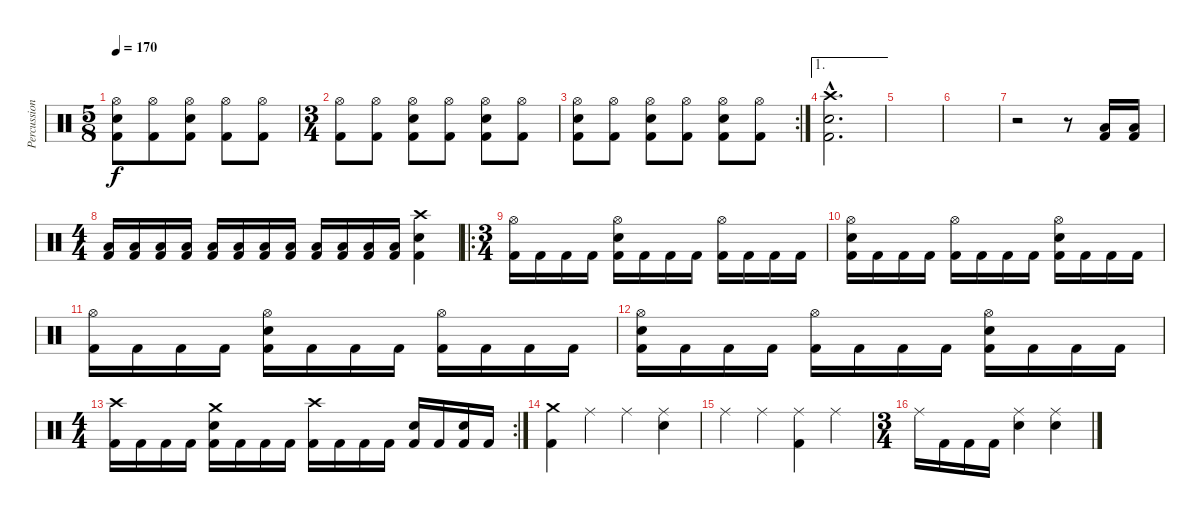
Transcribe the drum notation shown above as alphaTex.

\track ("Percussion" "Percussion") {instrument percussion}
\staff {score}
\articulation defaults
\ts (5 8)
\tempo 170
\clef neutral
\ks c
("Kick (hit) 2" "Snare (hit) 2" "Hi-Hat (open)").8{dy f} ("Kick (hit) 2" "Hi-Hat (open)").8 ("Kick (hit) 2" "Snare (hit) 2" "Hi-Hat (open)").8 ("Kick (hit) 2" "Hi-Hat (open)").8 ("Kick (hit) 2" "Hi-Hat (open)").8 |
\ts (3 4)
("Kick (hit) 2" "Hi-Hat (open)").8 ("Kick (hit) 2" "Hi-Hat (open)").8 ("Kick (hit) 2" "Snare (hit) 2" "Hi-Hat (open)").8 ("Kick (hit) 2" "Hi-Hat (open)").8 ("Kick (hit) 2" "Snare (hit) 2" "Hi-Hat (open)").8 ("Kick (hit) 2" "Hi-Hat (open)").8 |
\rc 2
("Kick (hit) 2" "Snare (hit) 2" "Hi-Hat (open)").8 ("Kick (hit) 2" "Hi-Hat (open)").8 ("Kick (hit) 2" "Snare (hit) 2" "Hi-Hat (open)").8 ("Kick (hit) 2" "Hi-Hat (open)").8 ("Kick (hit) 2" "Snare (hit) 2" "Hi-Hat (open)").8 ("Kick (hit) 2" "Hi-Hat (open)").8 |
\ae 1
("Kick (hit) 2"{hac} "Snare (hit) 2"{hac} "Crash high (hit)"{hac}).2{d} |
|
|
r.2 r.8 ("Kick (hit) 2" "Low Floor Tom (hit)").16 ("Kick (hit) 2" "Low Floor Tom (hit)").16 |
\ts (4 4)
("Kick (hit) 2" "Low Tom (hit)").16 ("Kick (hit) 2" "Low Tom (hit)").16 ("Kick (hit) 2" "Low Floor Tom (hit)").16 ("Kick (hit) 2" "Low Floor Tom (hit)").16 ("Kick (hit) 2" "Low Tom (hit)").16 ("Kick (hit) 2" "Low Tom (hit)").16 ("Kick (hit) 2" "Low Floor Tom (hit)").16 ("Kick (hit) 2" "Low Floor Tom (hit)").16 ("Kick (hit) 2" "Low Tom (hit)").16 ("Kick (hit) 2" "Low Tom (hit)").16 ("Kick (hit) 2" "Low Floor Tom (hit)").16 ("Kick (hit) 2" "Low Floor Tom (hit)").16 ("Kick (hit) 2" "Snare (hit) 2" "Crash high (hit)").4 |
\ro
\ts (3 4)
("Kick (hit) 2" "Hi-Hat (open)").16 "Kick (hit) 2".16 "Kick (hit) 2".16 "Kick (hit) 2".16 ("Kick (hit) 2" "Snare (hit) 2" "Hi-Hat (open)").16 "Kick (hit) 2".16 "Kick (hit) 2".16 "Kick (hit) 2".16 ("Kick (hit) 2" "Hi-Hat (open)").16 "Kick (hit) 2".16 "Kick (hit) 2".16 "Kick (hit) 2".16 |
("Kick (hit) 2" "Snare (hit) 2" "Hi-Hat (open)").16 "Kick (hit) 2".16 "Kick (hit) 2".16 "Kick (hit) 2".16 ("Kick (hit) 2" "Hi-Hat (open)").16 "Kick (hit) 2".16 "Kick (hit) 2".16 "Kick (hit) 2".16 ("Kick (hit) 2" "Snare (hit) 2" "Hi-Hat (open)").16 "Kick (hit) 2".16 "Kick (hit) 2".16 "Kick (hit) 2".16 |
("Kick (hit) 2" "Hi-Hat (open)").16 "Kick (hit) 2".16 "Kick (hit) 2".16 "Kick (hit) 2".16 ("Kick (hit) 2" "Snare (hit) 2" "Hi-Hat (open)").16 "Kick (hit) 2".16 "Kick (hit) 2".16 "Kick (hit) 2".16 ("Kick (hit) 2" "Hi-Hat (open)").16 "Kick (hit) 2".16 "Kick (hit) 2".16 "Kick (hit) 2".16 |
("Kick (hit) 2" "Snare (hit) 2" "Hi-Hat (open)").16 "Kick (hit) 2".16 "Kick (hit) 2".16 "Kick (hit) 2".16 ("Kick (hit) 2" "Hi-Hat (open)").16 "Kick (hit) 2".16 "Kick (hit) 2".16 "Kick (hit) 2".16 ("Kick (hit) 2" "Snare (hit) 2" "Hi-Hat (open)").16 "Kick (hit) 2".16 "Kick (hit) 2".16 "Kick (hit) 2".16 |
\rc 2
\ts (4 4)
("Kick (hit) 2" "Crash high (hit)").16 "Kick (hit) 2".16 "Kick (hit) 2".16 "Kick (hit) 2".16 ("Kick (hit) 2" "Snare (hit) 2" "Crash medium (hit)").16 "Kick (hit) 2".16 "Kick (hit) 2".16 "Kick (hit) 2".16 ("Kick (hit) 2" "Crash high (hit)").16 "Kick (hit) 2".16 "Kick (hit) 2".16 "Kick (hit) 2".16 ("Kick (hit) 2" "Snare (hit) 2").16 "Kick (hit) 2".16 ("Kick (hit) 2" "Snare (hit) 2").16 "Kick (hit) 2".16 |
("Kick (hit) 2" "Crash medium (hit)").4 "Ride (middle)".4 "Ride (middle)".4 ("Snare (hit) 2" "Ride (middle)").4 |
"Ride (middle)".4 "Ride (middle)".4 ("Kick (hit) 2" "Ride (middle)").4 "Ride (middle)".4 |
\ts (3 4)
"Ride (middle)".16 "Kick (hit) 2".16 "Kick (hit) 2".16 "Kick (hit) 2".16 ("Snare (hit) 2" "Ride (middle)").4 ("Snare (hit) 2" "Ride (middle)").4
